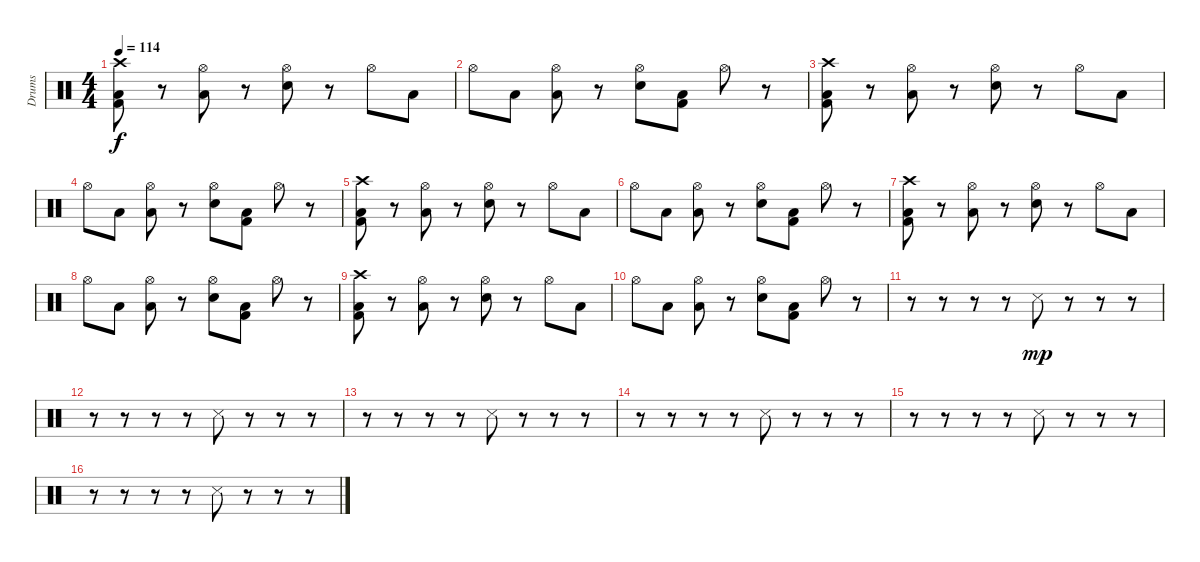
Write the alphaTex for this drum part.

\track ("Drums" "Drums") {instrument percussion}
\staff {score}
\articulation defaults
\ts (4 4)
\tempo 114
\clef neutral
\ks c
("Crash high (hit)" "Kick (hit) 2" "Low Floor Tom (hit)").8{dy f} r.8 ("Hi-Hat (open)" "Low Floor Tom (hit)").8 r.8 ("Hi-Hat (open)" "Snare (hit) 2").8 r.8 "Hi-Hat (open)".8 "Low Floor Tom (hit)".8 |
"Hi-Hat (open)".8 "Low Floor Tom (hit)".8 ("Hi-Hat (open)" "Low Floor Tom (hit)").8 r.8 ("Hi-Hat (open)" "Snare (hit) 2").8 ("Kick (hit) 2" "Low Floor Tom (hit)").8 "Hi-Hat (open)".8 r.8 |
("Crash high (hit)" "Kick (hit) 2" "Low Floor Tom (hit)").8 r.8 ("Hi-Hat (open)" "Low Floor Tom (hit)").8 r.8 ("Hi-Hat (open)" "Snare (hit) 2").8 r.8 "Hi-Hat (open)".8 "Low Floor Tom (hit)".8 |
"Hi-Hat (open)".8 "Low Floor Tom (hit)".8 ("Hi-Hat (open)" "Low Floor Tom (hit)").8 r.8 ("Hi-Hat (open)" "Snare (hit) 2").8 ("Kick (hit) 2" "Low Floor Tom (hit)").8 "Hi-Hat (open)".8 r.8 |
("Crash high (hit)" "Kick (hit) 2" "Low Floor Tom (hit)").8 r.8 ("Hi-Hat (open)" "Low Floor Tom (hit)").8 r.8 ("Hi-Hat (open)" "Snare (hit) 2").8 r.8 "Hi-Hat (open)".8 "Low Floor Tom (hit)".8 |
"Hi-Hat (open)".8 "Low Floor Tom (hit)".8 ("Hi-Hat (open)" "Low Floor Tom (hit)").8 r.8 ("Hi-Hat (open)" "Snare (hit) 2").8 ("Kick (hit) 2" "Low Floor Tom (hit)").8 "Hi-Hat (open)".8 r.8 |
("Crash high (hit)" "Kick (hit) 2" "Low Floor Tom (hit)").8 r.8 ("Hi-Hat (open)" "Low Floor Tom (hit)").8 r.8 ("Hi-Hat (open)" "Snare (hit) 2").8 r.8 "Hi-Hat (open)".8 "Low Floor Tom (hit)".8 |
"Hi-Hat (open)".8 "Low Floor Tom (hit)".8 ("Hi-Hat (open)" "Low Floor Tom (hit)").8 r.8 ("Hi-Hat (open)" "Snare (hit) 2").8 ("Kick (hit) 2" "Low Floor Tom (hit)").8 "Hi-Hat (open)".8 r.8 |
("Crash high (hit)" "Kick (hit) 2" "Low Floor Tom (hit)").8 r.8 ("Hi-Hat (open)" "Low Floor Tom (hit)").8 r.8 ("Hi-Hat (open)" "Snare (hit) 2").8 r.8 "Hi-Hat (open)".8 "Low Floor Tom (hit)".8 |
"Hi-Hat (open)".8 "Low Floor Tom (hit)".8 ("Hi-Hat (open)" "Low Floor Tom (hit)").8 r.8 ("Hi-Hat (open)" "Snare (hit) 2").8 ("Kick (hit) 2" "Low Floor Tom (hit)").8 "Hi-Hat (open)".8 r.8 |
r.8 r.8 r.8 r.8 "Snare (side stick) 3".8{dy mp} r.8 r.8 r.8 |
r.8 r.8 r.8 r.8 "Snare (side stick) 3".8 r.8 r.8 r.8 |
r.8 r.8 r.8 r.8 "Snare (side stick) 3".8 r.8 r.8 r.8 |
r.8 r.8 r.8 r.8 "Snare (side stick) 3".8 r.8 r.8 r.8 |
r.8 r.8 r.8 r.8 "Snare (side stick) 3".8 r.8 r.8 r.8 |
r.8 r.8 r.8 r.8 "Snare (side stick) 3".8 r.8 r.8 r.8
